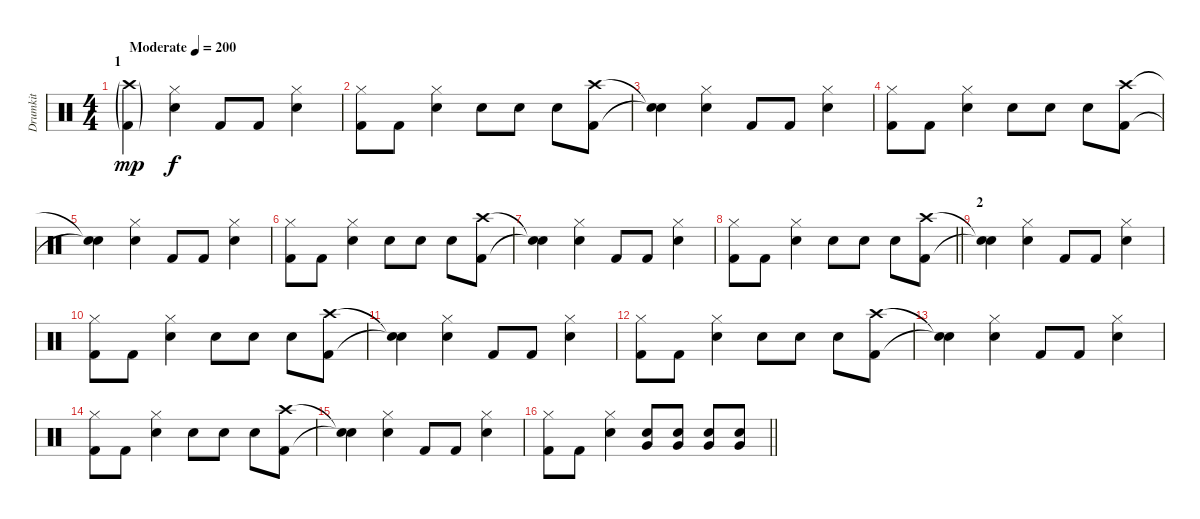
\track ("Drumkit" "Drumkit") {instrument percussion}
\staff {score}
\articulation defaults
\ts (4 4)
\section ("" "1")
\tempo (200 "Moderate")
\clef neutral
\ks c
("Crash high (hit)"{g} "Kick (hit) 2"{g}).4{dy mp} ("Hi-Hat (closed)" "Snare (hit) 2").4{dy f} "Kick (hit) 2".8 "Kick (hit) 2".8 ("Hi-Hat (closed)" "Snare (hit) 2").4 |
("Hi-Hat (closed)" "Kick (hit) 2").8 "Kick (hit) 2".8 ("Hi-Hat (closed)" "Snare (hit) 2").4 "Snare (hit) 2".8 "Snare (hit) 2".8 "Snare (hit) 2".8 ("Crash high (hit)" "Kick (hit) 2").8 |
("Snare (hit)"{t} "Snare (hit)"{t}).4 ("Hi-Hat (closed)" "Snare (hit) 2").4 "Kick (hit) 2".8 "Kick (hit) 2".8 ("Hi-Hat (closed)" "Snare (hit) 2").4 |
("Hi-Hat (closed)" "Kick (hit) 2").8 "Kick (hit) 2".8 ("Hi-Hat (closed)" "Snare (hit) 2").4 "Snare (hit) 2".8 "Snare (hit) 2".8 "Snare (hit) 2".8 ("Crash high (hit)" "Kick (hit) 2").8 |
("Snare (hit)"{t} "Snare (hit)"{t}).4 ("Hi-Hat (closed)" "Snare (hit) 2").4 "Kick (hit) 2".8 "Kick (hit) 2".8 ("Hi-Hat (closed)" "Snare (hit) 2").4 |
("Hi-Hat (closed)" "Kick (hit) 2").8 "Kick (hit) 2".8 ("Hi-Hat (closed)" "Snare (hit) 2").4 "Snare (hit) 2".8 "Snare (hit) 2".8 "Snare (hit) 2".8 ("Crash high (hit)" "Kick (hit) 2").8 |
("Snare (hit)"{t} "Snare (hit)"{t}).4 ("Hi-Hat (closed)" "Snare (hit) 2").4 "Kick (hit) 2".8 "Kick (hit) 2".8 ("Hi-Hat (closed)" "Snare (hit) 2").4 |
\barLineRight lightlight
("Hi-Hat (closed)" "Kick (hit) 2").8 "Kick (hit) 2".8 ("Hi-Hat (closed)" "Snare (hit) 2").4 "Snare (hit) 2".8 "Snare (hit) 2".8 "Snare (hit) 2".8 ("Crash high (hit)" "Kick (hit) 2").8 |
\section ("" "2")
("Snare (hit)"{t} "Snare (hit)"{t}).4 ("Hi-Hat (closed)" "Snare (hit) 2").4 "Kick (hit) 2".8 "Kick (hit) 2".8 ("Hi-Hat (closed)" "Snare (hit) 2").4 |
("Hi-Hat (closed)" "Kick (hit) 2").8 "Kick (hit) 2".8 ("Hi-Hat (closed)" "Snare (hit) 2").4 "Snare (hit) 2".8 "Snare (hit) 2".8 "Snare (hit) 2".8 ("Crash high (hit)" "Kick (hit) 2").8 |
("Snare (hit)"{t} "Snare (hit)"{t}).4 ("Hi-Hat (closed)" "Snare (hit) 2").4 "Kick (hit) 2".8 "Kick (hit) 2".8 ("Hi-Hat (closed)" "Snare (hit) 2").4 |
("Hi-Hat (closed)" "Kick (hit) 2").8 "Kick (hit) 2".8 ("Hi-Hat (closed)" "Snare (hit) 2").4 "Snare (hit) 2".8 "Snare (hit) 2".8 "Snare (hit) 2".8 ("Crash high (hit)" "Kick (hit) 2").8 |
("Snare (hit)"{t} "Snare (hit)"{t}).4 ("Hi-Hat (closed)" "Snare (hit) 2").4 "Kick (hit) 2".8 "Kick (hit) 2".8 ("Hi-Hat (closed)" "Snare (hit) 2").4 |
("Hi-Hat (closed)" "Kick (hit) 2").8 "Kick (hit) 2".8 ("Hi-Hat (closed)" "Snare (hit) 2").4 "Snare (hit) 2".8 "Snare (hit) 2".8 "Snare (hit) 2".8 ("Crash high (hit)" "Kick (hit) 2").8 |
("Snare (hit)"{t} "Snare (hit)"{t}).4 ("Hi-Hat (closed)" "Snare (hit) 2").4 "Kick (hit) 2".8 "Kick (hit) 2".8 ("Hi-Hat (closed)" "Snare (hit) 2").4 |
\barLineRight lightlight
("Hi-Hat (closed)" "Kick (hit) 2").8 "Kick (hit) 2".8 ("Hi-Hat (closed)" "Snare (hit) 2").4 ("Very Low Tom (hit)" "Snare (hit) 2").8 ("Very Low Tom (hit)" "Snare (hit) 2").8 ("Very Low Tom (hit)" "Snare (hit) 2").8 ("Very Low Tom (hit)" "Snare (hit) 2").8
